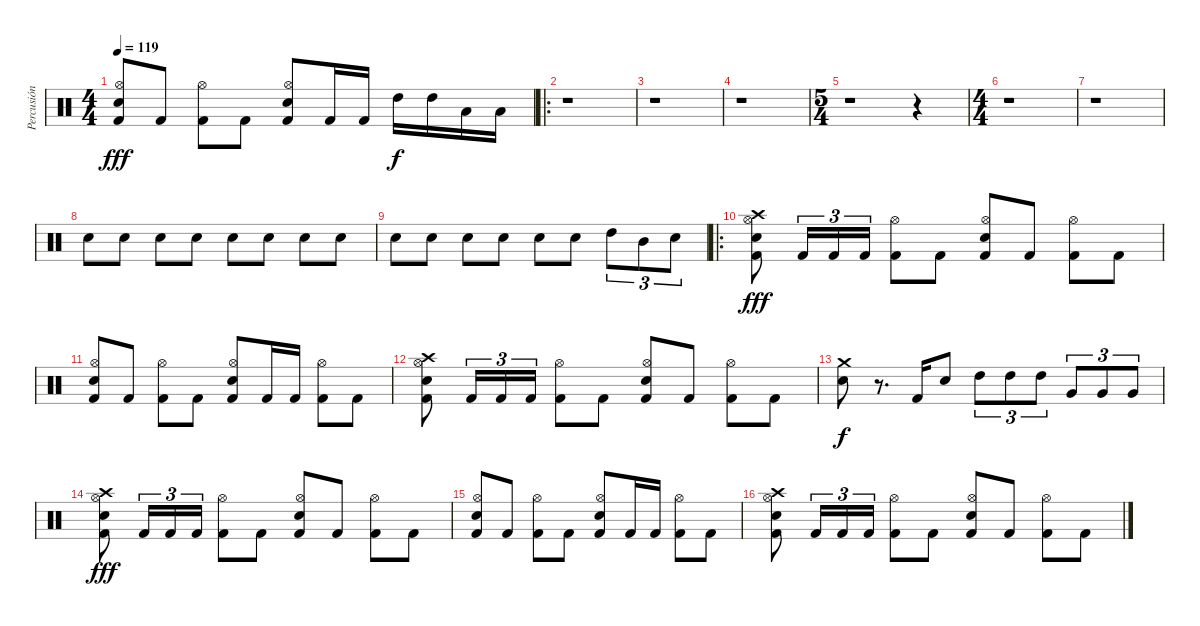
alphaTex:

\track ("Percusión" "Percusión") {instrument percussion}
\staff {score}
\articulation defaults
\ts (4 4)
\tempo 119
\clef neutral
\ks c
("Electric Snare (hit)" "Hi-Hat (open)" "Kick (hit) 2").8{dy fff} "Kick (hit) 2".8 ("Hi-Hat (open)" "Kick (hit) 2").8 "Kick (hit) 2".8 ("Electric Snare (hit)" "Hi-Hat (open)" "Kick (hit) 2").8 "Kick (hit) 2".16 "Kick (hit) 2".16 "High Tom (hit)".16{dy f} "High Tom (hit)".16 "Low Tom (hit)".16 "Low Tom (hit)".16 |
\ro
r.1 |
r.1 |
r.1 |
\ts (5 4)
r.1 r.4 |
\ts (4 4)
r.1 |
r.1{volume 8} |
"Electric Snare (hit)".8{volume 13} "Electric Snare (hit)".8 "Electric Snare (hit)".8 "Electric Snare (hit)".8 "Electric Snare (hit)".8 "Electric Snare (hit)".8 "Electric Snare (hit)".8 "Electric Snare (hit)".8 |
"Electric Snare (hit)".8 "Electric Snare (hit)".8 "Electric Snare (hit)".8 "Electric Snare (hit)".8 "Electric Snare (hit)".8 "Electric Snare (hit)".8 "High Tom (hit)".8{tu (3 2)} "Mid Tom (hit)".8{tu (3 2)} "Electric Snare (hit)".8{tu (3 2)} |
\ro
("Crash high (hit)" "Electric Snare (hit)" "Hi-Hat (open)" "Kick (hit) 2").8{dy fff} "Kick (hit) 2".16{tu (3 2)} "Kick (hit) 2".16{tu (3 2)} "Kick (hit) 2".16{tu (3 2)} ("Hi-Hat (open)" "Kick (hit) 2").8 "Kick (hit) 2".8 ("Electric Snare (hit)" "Hi-Hat (open)" "Kick (hit) 2").8 "Kick (hit) 2".8 ("Hi-Hat (open)" "Kick (hit) 2").8 "Kick (hit) 2".8 |
("Electric Snare (hit)" "Hi-Hat (open)" "Kick (hit) 2").8 "Kick (hit) 2".8 ("Hi-Hat (open)" "Kick (hit) 2").8 "Kick (hit) 2".8 ("Electric Snare (hit)" "Hi-Hat (open)" "Kick (hit) 2").8 "Kick (hit) 2".16 "Kick (hit) 2".16 ("Hi-Hat (open)" "Kick (hit) 2").8 "Kick (hit) 2".8 |
("Crash high (hit)" "Electric Snare (hit)" "Hi-Hat (open)" "Kick (hit) 2").8 "Kick (hit) 2".16{tu (3 2)} "Kick (hit) 2".16{tu (3 2)} "Kick (hit) 2".16{tu (3 2)} ("Hi-Hat (open)" "Kick (hit) 2").8 "Kick (hit) 2".8 ("Electric Snare (hit)" "Hi-Hat (open)" "Kick (hit) 2").8 "Kick (hit) 2".8 ("Hi-Hat (open)" "Kick (hit) 2").8 "Kick (hit) 2".8 |
("Crash medium (hit)" "Electric Snare (hit)").8{dy f} r.8{d} "Kick (hit) 2".16 "Electric Snare (hit)".8 "High Tom (hit)".8{tu (3 2)} "High Tom (hit)".8{tu (3 2)} "High Tom (hit)".8{tu (3 2)} "Very Low Tom (hit)".8{tu (3 2)} "Very Low Tom (hit)".8{tu (3 2)} "Very Low Tom (hit)".8{tu (3 2)} |
("Crash high (hit)" "Electric Snare (hit)" "Hi-Hat (open)" "Kick (hit) 2").8{dy fff} "Kick (hit) 2".16{tu (3 2)} "Kick (hit) 2".16{tu (3 2)} "Kick (hit) 2".16{tu (3 2)} ("Hi-Hat (open)" "Kick (hit) 2").8 "Kick (hit) 2".8 ("Electric Snare (hit)" "Hi-Hat (open)" "Kick (hit) 2").8 "Kick (hit) 2".8 ("Hi-Hat (open)" "Kick (hit) 2").8 "Kick (hit) 2".8 |
("Electric Snare (hit)" "Hi-Hat (open)" "Kick (hit) 2").8 "Kick (hit) 2".8 ("Hi-Hat (open)" "Kick (hit) 2").8 "Kick (hit) 2".8 ("Electric Snare (hit)" "Hi-Hat (open)" "Kick (hit) 2").8 "Kick (hit) 2".16 "Kick (hit) 2".16 ("Hi-Hat (open)" "Kick (hit) 2").8 "Kick (hit) 2".8 |
("Crash high (hit)" "Electric Snare (hit)" "Hi-Hat (open)" "Kick (hit) 2").8 "Kick (hit) 2".16{tu (3 2)} "Kick (hit) 2".16{tu (3 2)} "Kick (hit) 2".16{tu (3 2)} ("Hi-Hat (open)" "Kick (hit) 2").8 "Kick (hit) 2".8 ("Electric Snare (hit)" "Hi-Hat (open)" "Kick (hit) 2").8 "Kick (hit) 2".8 ("Hi-Hat (open)" "Kick (hit) 2").8 "Kick (hit) 2".8
